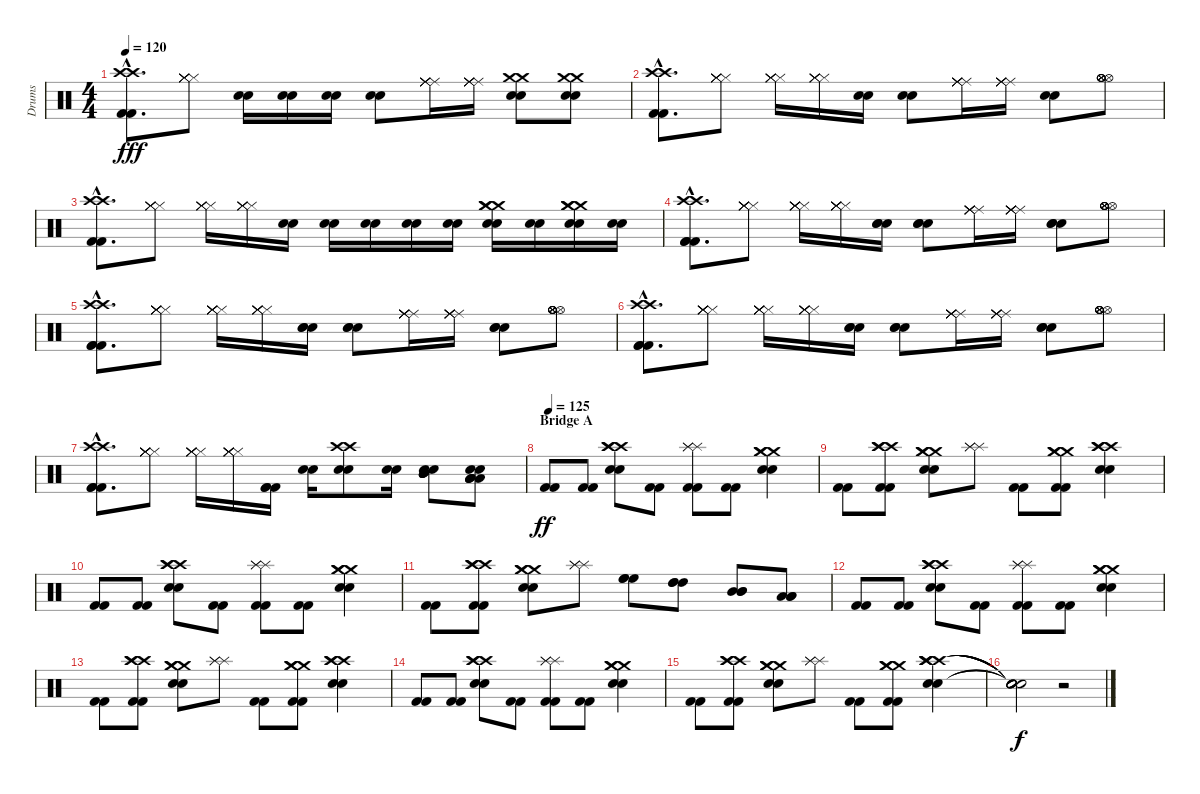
\track ("Drums" "Drums") {instrument percussion}
\staff {score}
\articulation defaults
\ts (4 4)
\tempo 120
\clef neutral
\ks c
("Crash high (hit)"{hac} "Crash high (hit)"{hac} "Kick (hit) 2"{hac} "Kick (hit) 2"{hac}).8{d dy fff} ("Hi-Hat (closed)" "Hi-Hat (closed)" "Hi-Hat (closed)" "Hi-Hat (closed)" "Hi-Hat (closed)").8 ("Snare (hit) 2" "Snare (hit) 2").16 ("Snare (hit) 2" "Snare (hit) 2").16 ("Snare (hit) 2" "Snare (hit) 2").16 ("Snare (hit) 2" "Snare (hit) 2").8 ("Ride (middle)" "Ride (middle)" "Ride (middle)" "Ride (middle)" "Ride (middle)").16 ("Ride (middle)" "Ride (middle)" "Ride (middle)" "Ride (middle)" "Ride (middle)").16 ("Crash medium (hit)" "Crash medium (hit)" "Snare (hit) 2" "Snare (hit) 2").8 ("Crash medium (hit)" "Crash medium (hit)" "Snare (hit) 2" "Snare (hit) 2").8 |
("Crash high (hit)"{hac} "Crash high (hit)"{hac} "Kick (hit) 2"{hac} "Kick (hit) 2"{hac}).8{d} ("Hi-Hat (closed)" "Hi-Hat (closed)" "Hi-Hat (closed)" "Hi-Hat (closed)" "Hi-Hat (closed)").8 ("Hi-Hat (closed)" "Hi-Hat (closed)" "Hi-Hat (closed)" "Hi-Hat (closed)" "Hi-Hat (closed)").16 ("Hi-Hat (closed)" "Hi-Hat (closed)" "Hi-Hat (closed)" "Hi-Hat (closed)" "Hi-Hat (closed)").16 ("Snare (hit) 2" "Snare (hit) 2").16 ("Snare (hit) 2" "Snare (hit) 2").8 ("Ride (middle)" "Ride (middle)" "Ride (middle)" "Ride (middle)" "Ride (middle)").16 ("Ride (middle)" "Ride (middle)" "Ride (middle)" "Ride (middle)" "Ride (middle)").16 ("Snare (hit) 2" "Snare (hit) 2").8 ("Hi-Hat (open)" "Hi-Hat (open)" "Hi-Hat (open)" "Hi-Hat (open)" "Hi-Hat (open)").8 |
("Crash high (hit)"{hac} "Crash high (hit)"{hac} "Kick (hit) 2"{hac} "Kick (hit) 2"{hac}).8{d} ("Hi-Hat (closed)" "Hi-Hat (closed)" "Hi-Hat (closed)" "Hi-Hat (closed)" "Hi-Hat (closed)").8 ("Hi-Hat (closed)" "Hi-Hat (closed)" "Hi-Hat (closed)" "Hi-Hat (closed)" "Hi-Hat (closed)").16 ("Hi-Hat (closed)" "Hi-Hat (closed)" "Hi-Hat (closed)" "Hi-Hat (closed)" "Hi-Hat (closed)").16 ("Snare (hit) 2" "Snare (hit) 2").16 ("Snare (hit) 2" "Snare (hit) 2").16 ("Snare (hit) 2" "Snare (hit) 2").16 ("Snare (hit) 2" "Snare (hit) 2").16 ("Snare (hit) 2" "Snare (hit) 2").16 ("Crash medium (hit)" "Crash medium (hit)" "Crash medium (hit)" "Snare (hit) 2" "Snare (hit) 2").16 ("Snare (hit) 2" "Snare (hit) 2").16 ("Crash medium (hit)" "Crash medium (hit)" "Crash medium (hit)" "Snare (hit) 2" "Snare (hit) 2").16 ("Snare (hit) 2" "Snare (hit) 2").16 |
("Crash high (hit)"{hac} "Crash high (hit)"{hac} "Kick (hit) 2"{hac} "Kick (hit) 2"{hac} "Kick (hit) 2"{hac}).8{d} ("Hi-Hat (closed)" "Hi-Hat (closed)" "Hi-Hat (closed)" "Hi-Hat (closed)" "Hi-Hat (closed)" "Hi-Hat (closed)").8 ("Hi-Hat (closed)" "Hi-Hat (closed)" "Hi-Hat (closed)" "Hi-Hat (closed)" "Hi-Hat (closed)" "Hi-Hat (closed)").16 ("Hi-Hat (closed)" "Hi-Hat (closed)" "Hi-Hat (closed)" "Hi-Hat (closed)" "Hi-Hat (closed)" "Hi-Hat (closed)").16 ("Snare (hit) 2" "Snare (hit) 2" "Snare (hit) 2").16 ("Snare (hit) 2" "Snare (hit) 2" "Snare (hit) 2").8 ("Ride (middle)" "Ride (middle)" "Ride (middle)" "Ride (middle)" "Ride (middle)" "Ride (middle)").16 ("Ride (middle)" "Ride (middle)" "Ride (middle)" "Ride (middle)" "Ride (middle)" "Ride (middle)").16 ("Snare (hit) 2" "Snare (hit) 2" "Snare (hit) 2").8 ("Hi-Hat (open)" "Hi-Hat (open)" "Hi-Hat (open)" "Hi-Hat (open)" "Hi-Hat (open)" "Hi-Hat (open)").8 |
("Crash high (hit)"{hac} "Crash high (hit)"{hac} "Kick (hit) 2"{hac} "Kick (hit) 2"{hac} "Kick (hit) 2"{hac}).8{d} ("Hi-Hat (closed)" "Hi-Hat (closed)" "Hi-Hat (closed)" "Hi-Hat (closed)" "Hi-Hat (closed)" "Hi-Hat (closed)").8 ("Hi-Hat (closed)" "Hi-Hat (closed)" "Hi-Hat (closed)" "Hi-Hat (closed)" "Hi-Hat (closed)" "Hi-Hat (closed)").16 ("Hi-Hat (closed)" "Hi-Hat (closed)" "Hi-Hat (closed)" "Hi-Hat (closed)" "Hi-Hat (closed)" "Hi-Hat (closed)").16 ("Snare (hit) 2" "Snare (hit) 2" "Snare (hit) 2").16 ("Snare (hit) 2" "Snare (hit) 2" "Snare (hit) 2").8 ("Ride (middle)" "Ride (middle)" "Ride (middle)" "Ride (middle)" "Ride (middle)" "Ride (middle)").16 ("Ride (middle)" "Ride (middle)" "Ride (middle)" "Ride (middle)" "Ride (middle)" "Ride (middle)").16 ("Snare (hit) 2" "Snare (hit) 2" "Snare (hit) 2").8 ("Hi-Hat (open)" "Hi-Hat (open)" "Hi-Hat (open)" "Hi-Hat (open)" "Hi-Hat (open)" "Hi-Hat (open)").8 |
("Crash high (hit)"{hac} "Crash high (hit)"{hac} "Kick (hit) 2"{hac} "Kick (hit) 2"{hac} "Kick (hit) 2"{hac}).8{d} ("Hi-Hat (closed)" "Hi-Hat (closed)" "Hi-Hat (closed)" "Hi-Hat (closed)" "Hi-Hat (closed)" "Hi-Hat (closed)").8 ("Hi-Hat (closed)" "Hi-Hat (closed)" "Hi-Hat (closed)" "Hi-Hat (closed)" "Hi-Hat (closed)" "Hi-Hat (closed)").16 ("Hi-Hat (closed)" "Hi-Hat (closed)" "Hi-Hat (closed)" "Hi-Hat (closed)" "Hi-Hat (closed)" "Hi-Hat (closed)").16 ("Snare (hit) 2" "Snare (hit) 2" "Snare (hit) 2").16 ("Snare (hit) 2" "Snare (hit) 2" "Snare (hit) 2").8 ("Ride (middle)" "Ride (middle)" "Ride (middle)" "Ride (middle)" "Ride (middle)" "Ride (middle)").16 ("Ride (middle)" "Ride (middle)" "Ride (middle)" "Ride (middle)" "Ride (middle)" "Ride (middle)").16 ("Snare (hit) 2" "Snare (hit) 2" "Snare (hit) 2").8 ("Hi-Hat (open)" "Hi-Hat (open)" "Hi-Hat (open)" "Hi-Hat (open)" "Hi-Hat (open)" "Hi-Hat (open)").8 |
("Crash high (hit)"{hac} "Crash high (hit)"{hac} "Kick (hit) 2"{hac} "Kick (hit) 2"{hac} "Kick (hit) 2"{hac}).8{d} ("Hi-Hat (closed)" "Hi-Hat (closed)" "Hi-Hat (closed)" "Hi-Hat (closed)" "Hi-Hat (closed)" "Hi-Hat (closed)").8 ("Hi-Hat (closed)" "Hi-Hat (closed)" "Hi-Hat (closed)" "Hi-Hat (closed)" "Hi-Hat (closed)" "Hi-Hat (closed)").16 ("Hi-Hat (closed)" "Hi-Hat (closed)" "Hi-Hat (closed)" "Hi-Hat (closed)" "Hi-Hat (closed)" "Hi-Hat (closed)").16 ("Kick (hit) 2" "Kick (hit) 2" "Kick (hit) 2").16 ("Snare (hit) 2" "Snare (hit) 2").16 ("Crash high (hit)" "Crash high (hit)" "Snare (hit) 2" "Snare (hit) 2").8 ("Snare (hit) 2" "Snare (hit) 2").16 ("Mid Tom (hit)" "Mid Tom (hit)" "Mid Tom (hit)" "Mid Tom (hit)" "Snare (hit) 2" "Snare (hit) 2").8 ("Snare (hit) 2" "Snare (hit) 2" "Low Tom (hit)" "Low Tom (hit)" "Low Tom (hit)" "Low Tom (hit)").8 |
\section ("" "Bridge A")
\tempo 125
("Kick (hit) 2" "Kick (hit) 2").8{dy ff} ("Kick (hit) 2" "Kick (hit) 2").8 ("Crash high (hit)" "Crash high (hit)" "Snare (hit) 2" "Snare (hit) 2" "Crash high (hit)").8 ("Kick (hit) 2" "Kick (hit) 2").8 ("Splash (hit)" "Splash (hit)" "Splash (hit)" "Kick (hit) 2" "Kick (hit) 2").8 ("Kick (hit) 2" "Kick (hit) 2").8 ("Crash medium (hit)" "Crash medium (hit)" "Snare (hit) 2" "Snare (hit) 2" "Crash medium (hit)").4 |
("Kick (hit) 2" "Kick (hit) 2").8 ("Crash high (hit)" "Crash high (hit)" "Crash high (hit)" "Kick (hit) 2" "Kick (hit) 2").8 ("Crash medium (hit)" "Crash medium (hit)" "Snare (hit) 2" "Snare (hit) 2" "Crash medium (hit)").8 ("Splash (hit)" "Splash (hit)" "Splash (hit)").8 ("Kick (hit) 2" "Kick (hit) 2").8 ("Crash medium (hit)" "Crash medium (hit)" "Crash medium (hit)" "Kick (hit) 2" "Kick (hit) 2").8 ("Crash high (hit)" "Crash high (hit)" "Snare (hit) 2" "Snare (hit) 2" "Crash high (hit)").4 |
("Kick (hit) 2" "Kick (hit) 2").8 ("Kick (hit) 2" "Kick (hit) 2").8 ("Crash high (hit)" "Crash high (hit)" "Snare (hit) 2" "Snare (hit) 2" "Crash high (hit)").8 ("Kick (hit) 2" "Kick (hit) 2").8 ("Splash (hit)" "Splash (hit)" "Splash (hit)" "Kick (hit) 2" "Kick (hit) 2").8 ("Kick (hit) 2" "Kick (hit) 2").8 ("Crash medium (hit)" "Crash medium (hit)" "Snare (hit) 2" "Snare (hit) 2" "Crash medium (hit)").4 |
("Kick (hit) 2" "Kick (hit) 2").8 ("Crash high (hit)" "Crash high (hit)" "Crash high (hit)" "Kick (hit) 2" "Kick (hit) 2").8 ("Crash medium (hit)" "Crash medium (hit)" "Snare (hit) 2" "Snare (hit) 2" "Crash medium (hit)").8 ("Splash (hit)" "Splash (hit)" "Splash (hit)").8 ("High Floor Tom (hit)" "High Floor Tom (hit)" "High Floor Tom (hit)").8 ("High Tom (hit)" "High Tom (hit)" "High Tom (hit)").8 ("Mid Tom (hit)" "Mid Tom (hit)" "Mid Tom (hit)").8 ("Low Tom (hit)" "Low Tom (hit)" "Low Tom (hit)").8 |
("Kick (hit) 2" "Kick (hit) 2").8 ("Kick (hit) 2" "Kick (hit) 2").8 ("Crash high (hit)" "Crash high (hit)" "Snare (hit) 2" "Snare (hit) 2" "Crash high (hit)").8 ("Kick (hit) 2" "Kick (hit) 2").8 ("Splash (hit)" "Splash (hit)" "Splash (hit)" "Kick (hit) 2" "Kick (hit) 2").8 ("Kick (hit) 2" "Kick (hit) 2").8 ("Crash medium (hit)" "Crash medium (hit)" "Snare (hit) 2" "Snare (hit) 2" "Crash medium (hit)").4 |
("Kick (hit) 2" "Kick (hit) 2").8 ("Crash high (hit)" "Crash high (hit)" "Crash high (hit)" "Kick (hit) 2" "Kick (hit) 2").8 ("Crash medium (hit)" "Crash medium (hit)" "Snare (hit) 2" "Snare (hit) 2" "Crash medium (hit)").8 ("Splash (hit)" "Splash (hit)" "Splash (hit)").8 ("Kick (hit) 2" "Kick (hit) 2").8 ("Crash medium (hit)" "Crash medium (hit)" "Crash medium (hit)" "Kick (hit) 2" "Kick (hit) 2").8 ("Crash high (hit)" "Crash high (hit)" "Snare (hit) 2" "Snare (hit) 2" "Crash high (hit)").4 |
("Kick (hit) 2" "Kick (hit) 2").8 ("Kick (hit) 2" "Kick (hit) 2").8 ("Crash high (hit)" "Crash high (hit)" "Snare (hit) 2" "Snare (hit) 2" "Crash high (hit)").8 ("Kick (hit) 2" "Kick (hit) 2").8 ("Splash (hit)" "Splash (hit)" "Splash (hit)" "Kick (hit) 2" "Kick (hit) 2").8 ("Kick (hit) 2" "Kick (hit) 2").8 ("Crash medium (hit)" "Crash medium (hit)" "Snare (hit) 2" "Snare (hit) 2" "Crash medium (hit)").4 |
("Kick (hit) 2" "Kick (hit) 2").8 ("Crash high (hit)" "Crash high (hit)" "Crash high (hit)" "Kick (hit) 2" "Kick (hit) 2").8 ("Crash medium (hit)" "Crash medium (hit)" "Snare (hit) 2" "Snare (hit) 2" "Crash medium (hit)").8 ("Splash (hit)" "Splash (hit)" "Splash (hit)").8 ("Kick (hit) 2" "Kick (hit) 2").8 ("Crash medium (hit)" "Crash medium (hit)" "Crash medium (hit)" "Kick (hit) 2" "Kick (hit) 2").8 ("Crash high (hit)" "Crash high (hit)" "Snare (hit) 2" "Snare (hit) 2" "Crash high (hit)" "Crash high (hit)").4 |
("Snare (hit)"{t} "Snare (hit)"{t} "Snare (hit)"{t} "Snare (hit)"{t} "Snare (hit)"{t} "Snare (hit)"{t}).2{dy f} r.2
